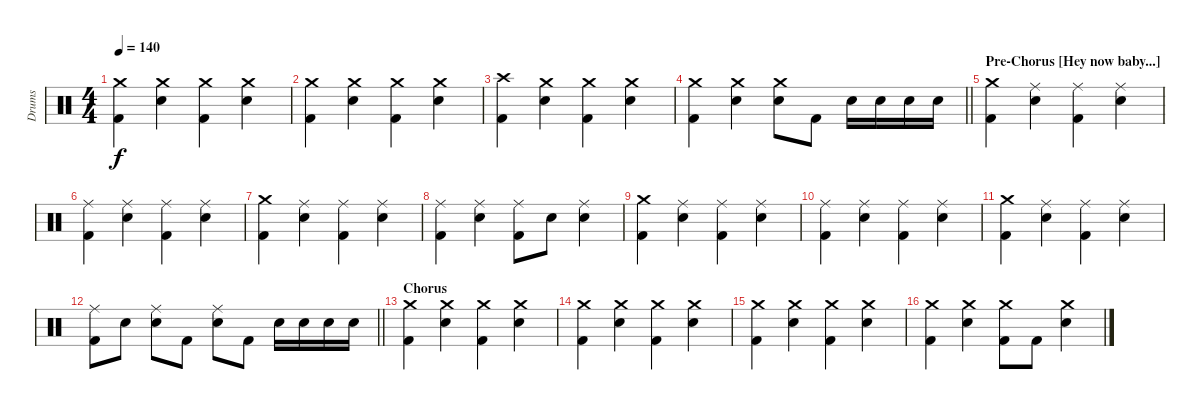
\track ("Drums" "Drums") {instrument percussion}
\staff {score}
\articulation defaults
\ts (4 4)
\tempo 140
\clef neutral
\ks c
("Crash medium (hit)" "Kick (hit) 2").4{dy f} ("Crash medium (hit)" "Snare (hit) 2").4 ("Crash medium (hit)" "Kick (hit) 2").4 ("Crash medium (hit)" "Snare (hit) 2").4 |
("Crash medium (hit)" "Kick (hit) 2").4 ("Crash medium (hit)" "Snare (hit) 2").4 ("Crash medium (hit)" "Kick (hit) 2").4 ("Crash medium (hit)" "Snare (hit) 2").4 |
("Crash high (hit)" "Kick (hit) 2").4 ("Crash medium (hit)" "Snare (hit) 2").4 ("Crash medium (hit)" "Kick (hit) 2").4 ("Crash medium (hit)" "Snare (hit) 2").4 |
\barLineRight lightlight
("Crash medium (hit)" "Kick (hit) 2").4 ("Crash medium (hit)" "Snare (hit) 2").4 ("Crash medium (hit)" "Snare (hit) 2").8 "Kick (hit) 2".8 "Snare (hit) 2".16 "Snare (hit) 2".16 "Snare (hit) 2".16 "Snare (hit) 2".16 |
\section ("" "Pre-Chorus [Hey now baby...]")
("Crash medium (hit)" "Kick (hit) 2").4 ("Ride (middle)" "Snare (hit) 2").4 ("Ride (middle)" "Kick (hit) 2").4 ("Ride (middle)" "Snare (hit) 2").4 |
("Ride (middle)" "Kick (hit) 2").4 ("Ride (middle)" "Snare (hit) 2").4 ("Ride (middle)" "Kick (hit) 2").4 ("Ride (middle)" "Snare (hit) 2").4 |
("Crash medium (hit)" "Kick (hit) 2").4 ("Ride (middle)" "Snare (hit) 2").4 ("Ride (middle)" "Kick (hit) 2").4 ("Ride (middle)" "Snare (hit) 2").4 |
("Ride (middle)" "Kick (hit) 2").4 ("Ride (middle)" "Snare (hit) 2").4 ("Ride (middle)" "Kick (hit) 2").8 "Snare (hit) 2".8 ("Ride (middle)" "Snare (hit) 2").4 |
("Crash medium (hit)" "Kick (hit) 2").4 ("Ride (middle)" "Snare (hit) 2").4 ("Ride (middle)" "Kick (hit) 2").4 ("Ride (middle)" "Snare (hit) 2").4 |
("Ride (middle)" "Kick (hit) 2").4 ("Ride (middle)" "Snare (hit) 2").4 ("Ride (middle)" "Kick (hit) 2").4 ("Ride (middle)" "Snare (hit) 2").4 |
("Crash medium (hit)" "Kick (hit) 2").4 ("Ride (middle)" "Snare (hit) 2").4 ("Ride (middle)" "Kick (hit) 2").4 ("Ride (middle)" "Snare (hit) 2").4 |
\barLineRight lightlight
("Ride (middle)" "Kick (hit) 2").8 "Snare (hit) 2".8 ("Ride (middle)" "Snare (hit) 2").8 "Kick (hit) 2".8 ("Ride (middle)" "Snare (hit) 2").8 "Kick (hit) 2".8 "Snare (hit) 2".16 "Snare (hit) 2".16 "Snare (hit) 2".16 "Snare (hit) 2".16 |
\section ("" "Chorus")
("Crash medium (hit)" "Kick (hit) 2").4 ("Crash medium (hit)" "Snare (hit) 2").4 ("Crash medium (hit)" "Kick (hit) 2").4 ("Crash medium (hit)" "Snare (hit) 2").4 |
("Crash medium (hit)" "Kick (hit) 2").4 ("Crash medium (hit)" "Snare (hit) 2").4 ("Crash medium (hit)" "Kick (hit) 2").4 ("Crash medium (hit)" "Snare (hit) 2").4 |
("Crash medium (hit)" "Kick (hit) 2").4 ("Crash medium (hit)" "Snare (hit) 2").4 ("Crash medium (hit)" "Kick (hit) 2").4 ("Crash medium (hit)" "Snare (hit) 2").4 |
("Crash medium (hit)" "Kick (hit) 2").4 ("Crash medium (hit)" "Snare (hit) 2").4 ("Crash medium (hit)" "Kick (hit) 2").8 "Kick (hit) 2".8 ("Crash medium (hit)" "Snare (hit) 2").4
